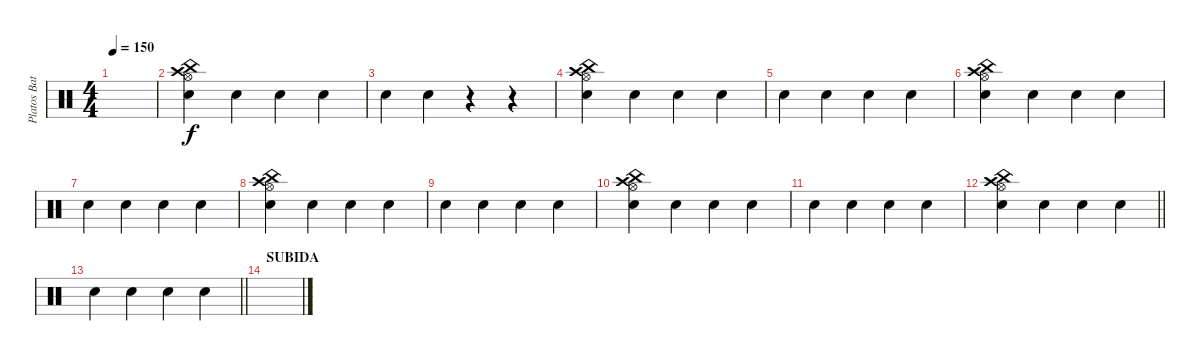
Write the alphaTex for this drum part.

\track ("Platos Batería" "Platos Bat") {instrument percussion}
\staff {score}
\articulation defaults
\ts (4 4)
\tempo 150
\clef neutral
\ks c
|
("Crash high (hit)" "China (hit)" "Hi-Hat (open)" "Hand Clap (hit)").4 "Hand Clap (hit)".4 "Hand Clap (hit)".4 "Hand Clap (hit)".4 |
"Hand Clap (hit)".4 "Hand Clap (hit)".4 r.4 r.4 |
("Crash high (hit)" "China (hit)" "Hi-Hat (open)" "Hand Clap (hit)").4 "Hand Clap (hit)".4 "Hand Clap (hit)".4 "Hand Clap (hit)".4 |
"Hand Clap (hit)".4 "Hand Clap (hit)".4 "Hand Clap (hit)".4 "Hand Clap (hit)".4 |
("Crash high (hit)" "China (hit)" "Hi-Hat (open)" "Hand Clap (hit)").4 "Hand Clap (hit)".4 "Hand Clap (hit)".4 "Hand Clap (hit)".4 |
"Hand Clap (hit)".4 "Hand Clap (hit)".4 "Hand Clap (hit)".4 "Hand Clap (hit)".4 |
("Crash high (hit)" "China (hit)" "Hi-Hat (open)" "Hand Clap (hit)").4 "Hand Clap (hit)".4 "Hand Clap (hit)".4 "Hand Clap (hit)".4 |
"Hand Clap (hit)".4 "Hand Clap (hit)".4 "Hand Clap (hit)".4 "Hand Clap (hit)".4 |
("Crash high (hit)" "China (hit)" "Hi-Hat (open)" "Hand Clap (hit)").4 "Hand Clap (hit)".4 "Hand Clap (hit)".4 "Hand Clap (hit)".4 |
"Hand Clap (hit)".4 "Hand Clap (hit)".4 "Hand Clap (hit)".4 "Hand Clap (hit)".4 |
\barLineRight lightlight
("Crash high (hit)" "China (hit)" "Hi-Hat (open)" "Hand Clap (hit)").4 "Hand Clap (hit)".4 "Hand Clap (hit)".4 "Hand Clap (hit)".4 |
\barLineRight lightlight "Hand Clap (hit)".4 "Hand Clap (hit)".4 "Hand Clap (hit)".4 "Hand Clap (hit)".4
|
\section ("" "SUBIDA")
